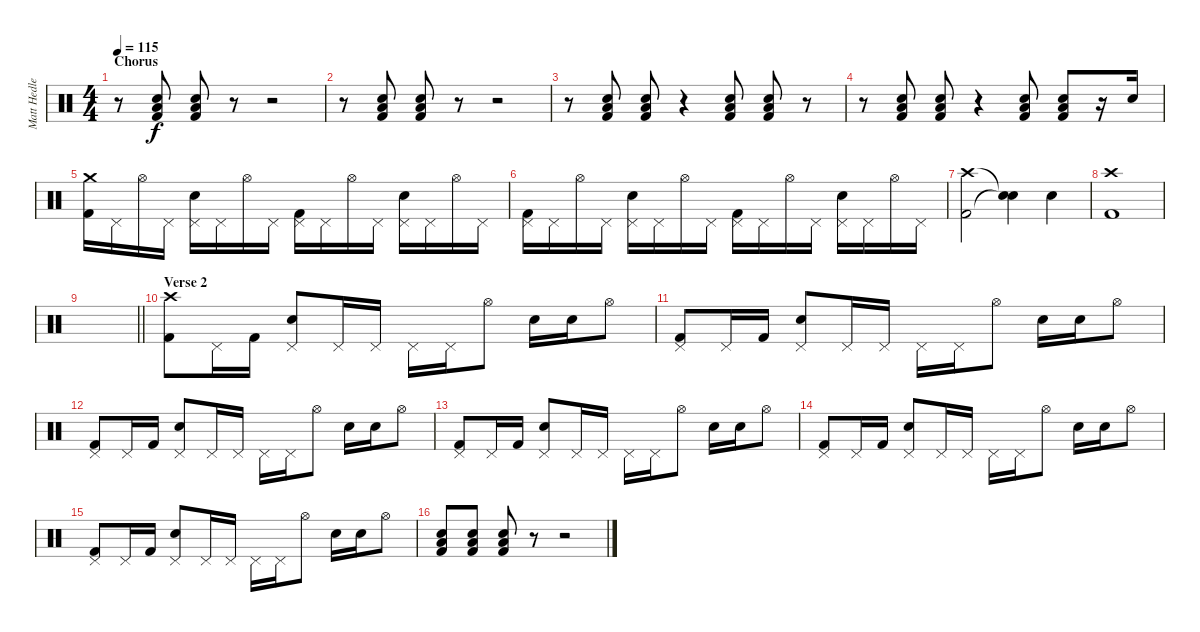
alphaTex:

\track ("Matt Hedlers" "Matt Hedle") {instrument percussion}
\staff {score}
\articulation defaults
\ts (4 4)
\section ("" "Chorus")
\tempo 115
\clef neutral
\ks c
r.8{dy f} ("Low Tom (hit)" "Snare (hit) 2" "Kick (hit) 2").8 ("Low Tom (hit)" "Snare (hit) 2" "Kick (hit) 2").8 r.8 r.2 |
r.8 ("Low Tom (hit)" "Snare (hit) 2" "Kick (hit) 2").8 ("Low Tom (hit)" "Snare (hit) 2" "Kick (hit) 2").8 r.8 r.2 |
r.8 ("Low Tom (hit)" "Snare (hit) 2" "Kick (hit) 2").8 ("Low Tom (hit)" "Snare (hit) 2" "Kick (hit) 2").8 r.4 ("Low Tom (hit)" "Snare (hit) 2" "Kick (hit) 2").8 ("Low Tom (hit)" "Snare (hit) 2" "Kick (hit) 2").8 r.8 |
r.8 ("Low Tom (hit)" "Snare (hit) 2" "Kick (hit) 2").8 ("Low Tom (hit)" "Snare (hit) 2" "Kick (hit) 2").8 r.4 ("Low Tom (hit)" "Snare (hit) 2" "Kick (hit) 2").8 ("Low Tom (hit)" "Snare (hit) 2" "Kick (hit) 2").8 r.16 "Snare (hit) 2".16 |
("Crash medium (hit)" "Kick (hit) 2").16 "Pedal Hi-Hat (hit)".16 "Hi-Hat (open)".16 "Pedal Hi-Hat (hit)".16 ("Pedal Hi-Hat (hit)" "Snare (hit) 2").16 "Pedal Hi-Hat (hit)".16 "Hi-Hat (open)".16 "Pedal Hi-Hat (hit)".16 ("Pedal Hi-Hat (hit)" "Kick (hit) 2").16 "Pedal Hi-Hat (hit)".16 "Hi-Hat (open)".16 "Pedal Hi-Hat (hit)".16 ("Pedal Hi-Hat (hit)" "Snare (hit) 2").16 "Pedal Hi-Hat (hit)".16 "Hi-Hat (open)".16 "Pedal Hi-Hat (hit)".16 |
("Pedal Hi-Hat (hit)" "Kick (hit) 2").16 "Pedal Hi-Hat (hit)".16 "Hi-Hat (open)".16 "Pedal Hi-Hat (hit)".16 ("Pedal Hi-Hat (hit)" "Snare (hit) 2").16 "Pedal Hi-Hat (hit)".16 "Hi-Hat (open)".16 "Pedal Hi-Hat (hit)".16 ("Pedal Hi-Hat (hit)" "Kick (hit) 2").16 "Pedal Hi-Hat (hit)".16 "Hi-Hat (open)".16 "Pedal Hi-Hat (hit)".16 ("Pedal Hi-Hat (hit)" "Snare (hit) 2").16 "Pedal Hi-Hat (hit)".16 "Hi-Hat (open)".16 "Pedal Hi-Hat (hit)".16 |
("Crash high (hit)" "Kick (hit) 2").2 ("Snare (hit)"{t} "Snare (hit)"{t}).4 "Snare (hit) 2".4 |
("Crash high (hit)" "Kick (hit) 2").1 |
\barLineRight lightlight
|
\section ("" "Verse 2")
("Crash high (hit)" "Kick (hit) 2").8 "Pedal Hi-Hat (hit)".16 "Kick (hit) 2".16 ("Pedal Hi-Hat (hit)" "Snare (hit) 2").8 "Pedal Hi-Hat (hit)".16 "Pedal Hi-Hat (hit)".16 "Pedal Hi-Hat (hit)".16 "Pedal Hi-Hat (hit)".16 "Hi-Hat (open)".8 "Snare (hit) 2".16 "Snare (hit) 2".16 "Hi-Hat (open)".8 |
("Pedal Hi-Hat (hit)" "Kick (hit) 2").8 "Pedal Hi-Hat (hit)".16 "Kick (hit) 2".16 ("Pedal Hi-Hat (hit)" "Snare (hit) 2").8 "Pedal Hi-Hat (hit)".16 "Pedal Hi-Hat (hit)".16 "Pedal Hi-Hat (hit)".16 "Pedal Hi-Hat (hit)".16 "Hi-Hat (open)".8 "Snare (hit) 2".16 "Snare (hit) 2".16 "Hi-Hat (open)".8 |
("Pedal Hi-Hat (hit)" "Kick (hit) 2").8 "Pedal Hi-Hat (hit)".16 "Kick (hit) 2".16 ("Pedal Hi-Hat (hit)" "Snare (hit) 2").8 "Pedal Hi-Hat (hit)".16 "Pedal Hi-Hat (hit)".16 "Pedal Hi-Hat (hit)".16 "Pedal Hi-Hat (hit)".16 "Hi-Hat (open)".8 "Snare (hit) 2".16 "Snare (hit) 2".16 "Hi-Hat (open)".8 |
("Pedal Hi-Hat (hit)" "Kick (hit) 2").8 "Pedal Hi-Hat (hit)".16 "Kick (hit) 2".16 ("Pedal Hi-Hat (hit)" "Snare (hit) 2").8 "Pedal Hi-Hat (hit)".16 "Pedal Hi-Hat (hit)".16 "Pedal Hi-Hat (hit)".16 "Pedal Hi-Hat (hit)".16 "Hi-Hat (open)".8 "Snare (hit) 2".16 "Snare (hit) 2".16 "Hi-Hat (open)".8 |
("Pedal Hi-Hat (hit)" "Kick (hit) 2").8 "Pedal Hi-Hat (hit)".16 "Kick (hit) 2".16 ("Pedal Hi-Hat (hit)" "Snare (hit) 2").8 "Pedal Hi-Hat (hit)".16 "Pedal Hi-Hat (hit)".16 "Pedal Hi-Hat (hit)".16 "Pedal Hi-Hat (hit)".16 "Hi-Hat (open)".8 "Snare (hit) 2".16 "Snare (hit) 2".16 "Hi-Hat (open)".8 |
("Pedal Hi-Hat (hit)" "Kick (hit) 2").8 "Pedal Hi-Hat (hit)".16 "Kick (hit) 2".16 ("Pedal Hi-Hat (hit)" "Snare (hit) 2").8 "Pedal Hi-Hat (hit)".16 "Pedal Hi-Hat (hit)".16 "Pedal Hi-Hat (hit)".16 "Pedal Hi-Hat (hit)".16 "Hi-Hat (open)".8 "Snare (hit) 2".16 "Snare (hit) 2".16 "Hi-Hat (open)".8 |
("Low Tom (hit)" "Snare (hit) 2" "Kick (hit) 2").8 ("Low Tom (hit)" "Snare (hit) 2" "Kick (hit) 2").8 ("Low Tom (hit)" "Snare (hit) 2" "Kick (hit) 2").8 r.8 r.2
